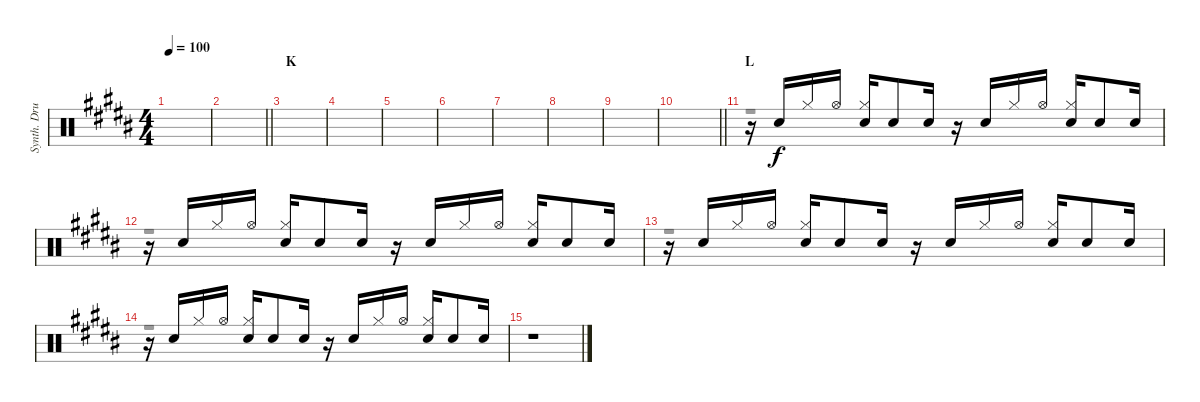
\track ("Synth. Drums" "Synth. Dru") {instrument percussion}
\staff {score}
\articulation defaults
\voice
\ts (4 4)
\tempo 100
\clef neutral
\ks b
|
\barLineRight lightlight
|
\section ("" "K")
|
|
|
|
|
|
|
\barLineRight lightlight
|
\section ("" "L")
r.16 "Snare (hit) 2".16 "Hi-Hat (closed)".16 "Hi-Hat (open)".16 ("Hi-Hat (closed)" "Snare (hit) 2").16 "Snare (hit) 2".8 "Snare (hit) 2".16 r.16 "Snare (hit) 2".16 "Hi-Hat (closed)".16 "Hi-Hat (open)".16 ("Hi-Hat (closed)" "Snare (hit) 2").16 "Snare (hit) 2".8 "Snare (hit) 2".16 |
r.16 "Snare (hit) 2".16 "Hi-Hat (closed)".16 "Hi-Hat (open)".16 ("Hi-Hat (closed)" "Snare (hit) 2").16 "Snare (hit) 2".8 "Snare (hit) 2".16 r.16 "Snare (hit) 2".16 "Hi-Hat (closed)".16 "Hi-Hat (open)".16 ("Hi-Hat (closed)" "Snare (hit) 2").16 "Snare (hit) 2".8 "Snare (hit) 2".16 |
r.16 "Snare (hit) 2".16 "Hi-Hat (closed)".16 "Hi-Hat (open)".16 ("Hi-Hat (closed)" "Snare (hit) 2").16 "Snare (hit) 2".8 "Snare (hit) 2".16 r.16 "Snare (hit) 2".16 "Hi-Hat (closed)".16 "Hi-Hat (open)".16 ("Hi-Hat (closed)" "Snare (hit) 2").16 "Snare (hit) 2".8 "Snare (hit) 2".16 |
r.16 "Snare (hit) 2".16 "Hi-Hat (closed)".16 "Hi-Hat (open)".16 ("Hi-Hat (closed)" "Snare (hit) 2").16 "Snare (hit) 2".8 "Snare (hit) 2".16 r.16 "Snare (hit) 2".16 "Hi-Hat (closed)".16 "Hi-Hat (open)".16 ("Hi-Hat (closed)" "Snare (hit) 2").16 "Snare (hit) 2".8 "Snare (hit) 2".16 |
r.1
\voice
\clef neutral
\ottava regular
\simile none
\ks b
|
\barLineRight lightlight
|
|
|
|
|
|
|
|
\barLineRight lightlight
|
r.1 |
r.1 |
r.1 |
r.1 |
